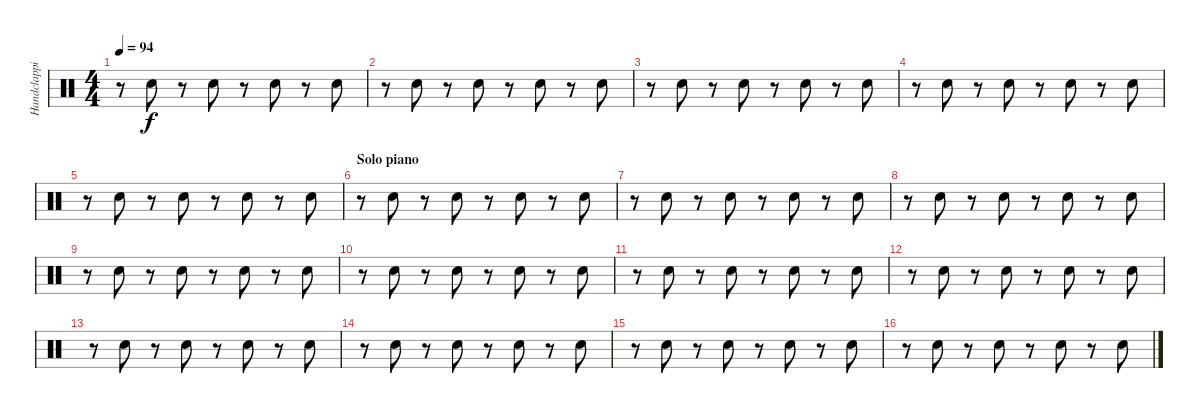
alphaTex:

\track ("Handclapping" "Handclappi") {instrument percussion}
\staff {score}
\articulation defaults
\ts (4 4)
\tempo 94
\clef neutral
\ks c
r.8{dy f} "Hand Clap (hit)".8 r.8 "Hand Clap (hit)".8 r.8 "Hand Clap (hit)".8 r.8 "Hand Clap (hit)".8 |
r.8 "Hand Clap (hit)".8 r.8 "Hand Clap (hit)".8 r.8 "Hand Clap (hit)".8 r.8 "Hand Clap (hit)".8 |
r.8 "Hand Clap (hit)".8 r.8 "Hand Clap (hit)".8 r.8 "Hand Clap (hit)".8 r.8 "Hand Clap (hit)".8 |
r.8 "Hand Clap (hit)".8 r.8 "Hand Clap (hit)".8 r.8 "Hand Clap (hit)".8 r.8 "Hand Clap (hit)".8 |
r.8 "Hand Clap (hit)".8 r.8 "Hand Clap (hit)".8 r.8 "Hand Clap (hit)".8 r.8 "Hand Clap (hit)".8 |
\section ("" "Solo piano")
r.8 "Hand Clap (hit)".8 r.8 "Hand Clap (hit)".8 r.8 "Hand Clap (hit)".8 r.8 "Hand Clap (hit)".8 |
r.8 "Hand Clap (hit)".8 r.8 "Hand Clap (hit)".8 r.8 "Hand Clap (hit)".8 r.8 "Hand Clap (hit)".8 |
r.8 "Hand Clap (hit)".8 r.8 "Hand Clap (hit)".8 r.8 "Hand Clap (hit)".8 r.8 "Hand Clap (hit)".8 |
r.8 "Hand Clap (hit)".8 r.8 "Hand Clap (hit)".8 r.8 "Hand Clap (hit)".8 r.8 "Hand Clap (hit)".8 |
r.8 "Hand Clap (hit)".8 r.8 "Hand Clap (hit)".8 r.8 "Hand Clap (hit)".8 r.8 "Hand Clap (hit)".8 |
r.8 "Hand Clap (hit)".8 r.8 "Hand Clap (hit)".8 r.8 "Hand Clap (hit)".8 r.8 "Hand Clap (hit)".8 |
r.8 "Hand Clap (hit)".8 r.8 "Hand Clap (hit)".8 r.8 "Hand Clap (hit)".8 r.8 "Hand Clap (hit)".8 |
r.8 "Hand Clap (hit)".8 r.8 "Hand Clap (hit)".8 r.8 "Hand Clap (hit)".8 r.8 "Hand Clap (hit)".8 |
r.8 "Hand Clap (hit)".8 r.8 "Hand Clap (hit)".8 r.8 "Hand Clap (hit)".8 r.8 "Hand Clap (hit)".8 |
r.8 "Hand Clap (hit)".8 r.8 "Hand Clap (hit)".8 r.8 "Hand Clap (hit)".8 r.8 "Hand Clap (hit)".8 |
r.8 "Hand Clap (hit)".8 r.8 "Hand Clap (hit)".8 r.8 "Hand Clap (hit)".8 r.8 "Hand Clap (hit)".8
